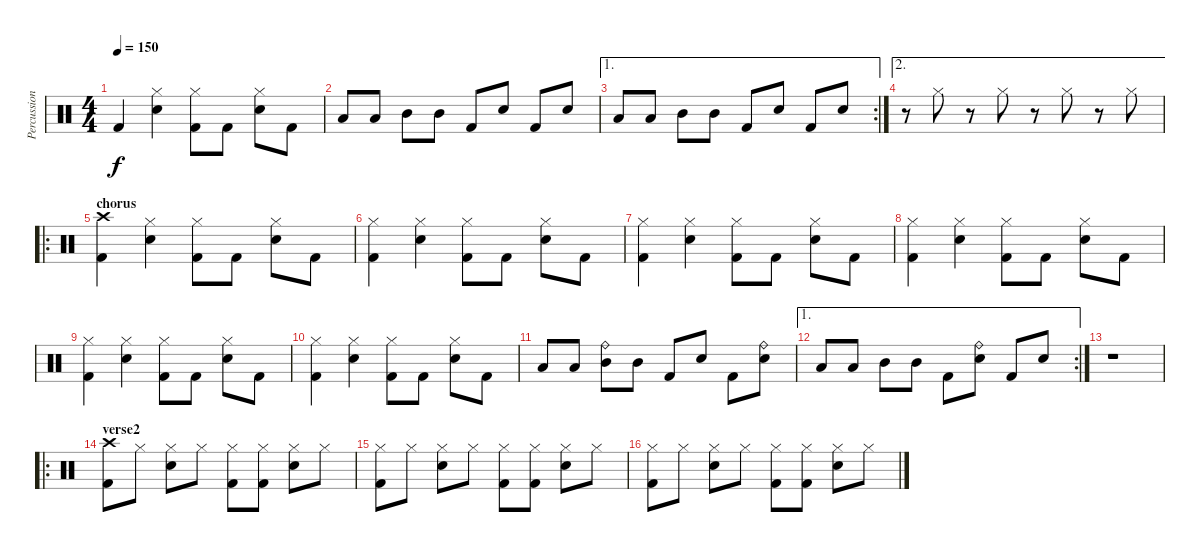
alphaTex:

\track ("Percussion" "Percussion") {instrument percussion}
\staff {score}
\articulation defaults
\ts (4 4)
\tempo 150
\clef neutral
\ks c "Kick (hit) 2".4{dy f}
("Hi-Hat (closed)" "Electric Snare (hit)").4 ("Hi-Hat (closed)" "Kick (hit) 2").8 "Kick (hit) 2".8 ("Hi-Hat (closed)" "Electric Snare (hit)").8 "Kick (hit) 2".8 |
"Low Tom (hit)".8 "Low Tom (hit)".8 "Mid Tom (hit)".8 "Mid Tom (hit)".8 "Kick (hit) 2".8 "Electric Snare (hit)".8 "Kick (hit) 2".8 "Electric Snare (hit)".8 |
\ae 1
\rc 2 "Low Tom (hit)".8 "Low Tom (hit)".8 "Mid Tom (hit)".8 "Mid Tom (hit)".8 "Kick (hit) 2".8 "Electric Snare (hit)".8 "Kick (hit) 2".8 "Electric Snare (hit)".8
|
\ae 2
r.8 "Hi-Hat (closed)".8 r.8 "Hi-Hat (closed)".8 r.8 "Hi-Hat (closed)".8 r.8 "Hi-Hat (closed)".8 |
\ro
\section ("" "chorus")
("Crash high (hit)" "Kick (hit) 2").4 ("Hi-Hat (closed)" "Electric Snare (hit)").4 ("Hi-Hat (closed)" "Kick (hit) 2").8 "Kick (hit) 2".8 ("Hi-Hat (closed)" "Electric Snare (hit)").8 "Kick (hit) 2".8 |
("Hi-Hat (closed)" "Kick (hit) 2").4 ("Hi-Hat (closed)" "Electric Snare (hit)").4 ("Hi-Hat (closed)" "Kick (hit) 2").8 "Kick (hit) 2".8 ("Hi-Hat (closed)" "Electric Snare (hit)").8 "Kick (hit) 2".8 |
("Hi-Hat (closed)" "Kick (hit) 2").4 ("Hi-Hat (closed)" "Electric Snare (hit)").4 ("Hi-Hat (closed)" "Kick (hit) 2").8 "Kick (hit) 2".8 ("Hi-Hat (closed)" "Electric Snare (hit)").8 "Kick (hit) 2".8 |
("Hi-Hat (closed)" "Kick (hit) 2").4 ("Hi-Hat (closed)" "Electric Snare (hit)").4 ("Hi-Hat (closed)" "Kick (hit) 2").8 "Kick (hit) 2".8 ("Hi-Hat (closed)" "Electric Snare (hit)").8 "Kick (hit) 2".8 |
("Hi-Hat (closed)" "Kick (hit) 2").4 ("Hi-Hat (closed)" "Electric Snare (hit)").4 ("Hi-Hat (closed)" "Kick (hit) 2").8 "Kick (hit) 2".8 ("Hi-Hat (closed)" "Electric Snare (hit)").8 "Kick (hit) 2".8 |
("Hi-Hat (closed)" "Kick (hit) 2").4 ("Hi-Hat (closed)" "Electric Snare (hit)").4 ("Hi-Hat (closed)" "Kick (hit) 2").8 "Kick (hit) 2".8 ("Hi-Hat (closed)" "Electric Snare (hit)").8 "Kick (hit) 2".8 |
"Low Tom (hit)".8 "Low Tom (hit)".8 ("Ride (bell)" "Mid Tom (hit)").8 "Mid Tom (hit)".8 "Kick (hit) 2".8 "Electric Snare (hit)".8 "Kick (hit) 2".8 ("Ride (bell)" "Electric Snare (hit)").8 |
\ae 1
\rc 2 "Low Tom (hit)".8 "Low Tom (hit)".8 "Mid Tom (hit)".8 "Mid Tom (hit)".8 "Kick (hit) 2".8
("Ride (bell)" "Electric Snare (hit)").8 "Kick (hit) 2".8 "Electric Snare (hit)".8 |
r.1 |
\ro
\section ("" "verse2")
("Crash high (hit)" "Kick (hit) 2").8 "Hi-Hat (closed)".8 ("Hi-Hat (closed)" "Electric Snare (hit)").8 "Hi-Hat (closed)".8 ("Hi-Hat (closed)" "Kick (hit) 2").8 ("Hi-Hat (closed)" "Kick (hit) 2").8 ("Hi-Hat (closed)" "Electric Snare (hit)").8 "Hi-Hat (closed)".8 |
("Hi-Hat (closed)" "Kick (hit) 2").8 "Hi-Hat (closed)".8 ("Hi-Hat (closed)" "Electric Snare (hit)").8 "Hi-Hat (closed)".8 ("Hi-Hat (closed)" "Kick (hit) 2").8 ("Hi-Hat (closed)" "Kick (hit) 2").8 ("Hi-Hat (closed)" "Electric Snare (hit)").8 "Hi-Hat (closed)".8 |
("Hi-Hat (closed)" "Kick (hit) 2").8 "Hi-Hat (closed)".8 ("Hi-Hat (closed)" "Electric Snare (hit)").8 "Hi-Hat (closed)".8 ("Hi-Hat (closed)" "Kick (hit) 2").8 ("Hi-Hat (closed)" "Kick (hit) 2").8 ("Hi-Hat (closed)" "Electric Snare (hit)").8 "Hi-Hat (closed)".8
